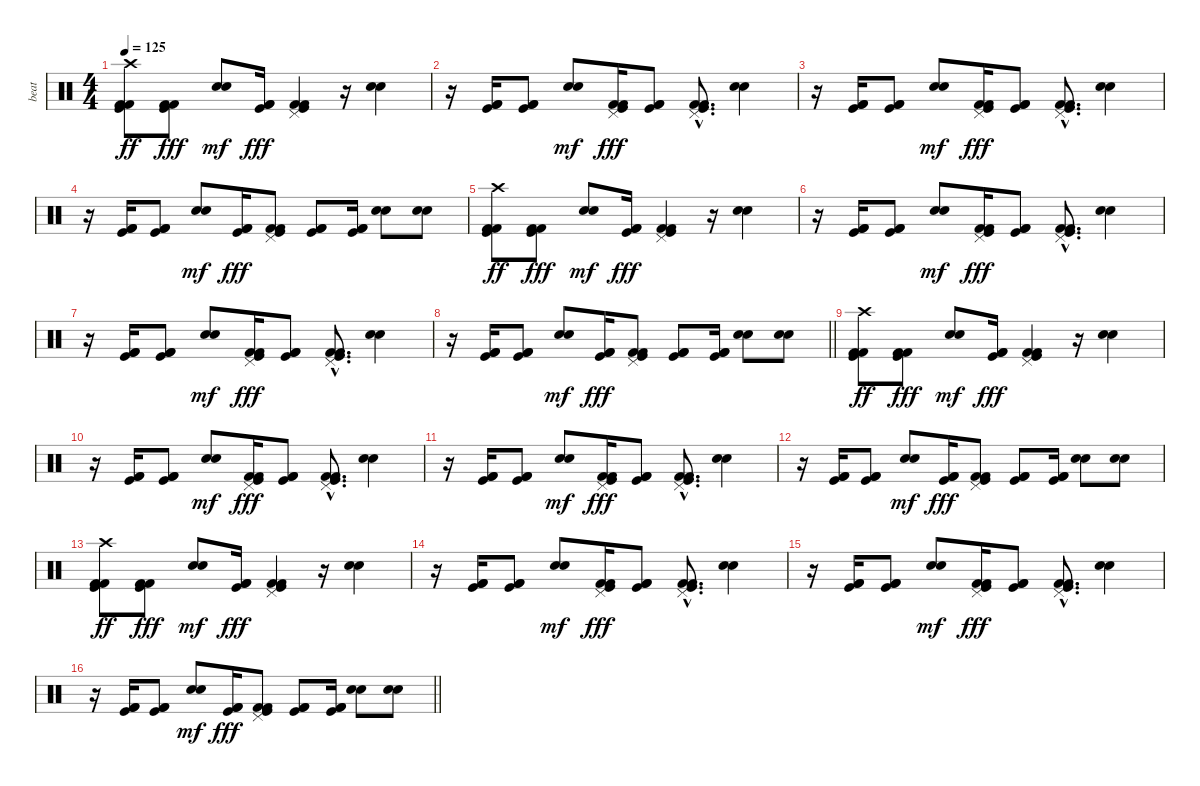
\track ("beat" "beat") {instrument percussion}
\staff {score}
\articulation defaults
\ts (4 4)
\tempo 125
\clef neutral
\ks c
("Kick (hit)" "Kick (hit) 2" "Kick (hit) 2" "Crash high (hit)").8{dy ff} ("Kick (hit)" "Kick (hit) 2" "Kick (hit) 2").8{dy fff} ("Snare (hit) 2" "Hand Clap (hit)").8{dy mf} ("Kick (hit)" "Kick (hit) 2" "Kick (hit) 2").16{dy fff} ("Kick (hit)" "Kick (hit) 2" "Kick (hit) 2" "Pedal Hi-Hat (hit)").4 r.16 ("Snare (hit) 2" "Electric Snare (hit)").4 |
r.16 ("Kick (hit)" "Kick (hit) 2" "Kick (hit) 2").16 ("Kick (hit)" "Kick (hit) 2" "Kick (hit) 2").8 ("Snare (hit) 2" "Hand Clap (hit)").8{dy mf} ("Kick (hit)" "Kick (hit) 2" "Kick (hit) 2" "Pedal Hi-Hat (hit)").16{dy fff} ("Kick (hit)" "Kick (hit) 2" "Kick (hit) 2").8 ("Kick (hit)"{hac} "Kick (hit) 2"{hac} "Kick (hit) 2"{hac} "Pedal Hi-Hat (hit)"{hac}).8{d} ("Snare (hit) 2" "Electric Snare (hit)").4 |
r.16 ("Kick (hit)" "Kick (hit) 2" "Kick (hit) 2").16 ("Kick (hit)" "Kick (hit) 2" "Kick (hit) 2").8 ("Snare (hit) 2" "Hand Clap (hit)").8{dy mf} ("Kick (hit)" "Kick (hit) 2" "Kick (hit) 2" "Pedal Hi-Hat (hit)").16{dy fff} ("Kick (hit)" "Kick (hit) 2" "Kick (hit) 2").8 ("Kick (hit)"{hac} "Kick (hit) 2"{hac} "Kick (hit) 2"{hac} "Pedal Hi-Hat (hit)"{hac}).8{d} ("Snare (hit) 2" "Electric Snare (hit)").4 |
r.16 ("Kick (hit)" "Kick (hit) 2" "Kick (hit) 2").16 ("Kick (hit)" "Kick (hit) 2" "Kick (hit) 2").8 ("Snare (hit) 2" "Hand Clap (hit)").8{dy mf} ("Kick (hit)" "Kick (hit) 2" "Kick (hit) 2").16{dy fff} ("Kick (hit)" "Kick (hit) 2" "Kick (hit) 2" "Pedal Hi-Hat (hit)").8 ("Kick (hit)" "Kick (hit) 2" "Kick (hit) 2").8 ("Kick (hit)" "Kick (hit) 2" "Kick (hit) 2").16 ("Snare (hit) 2" "Electric Snare (hit)").8 ("Snare (hit) 2" "Electric Snare (hit)").8 |
("Kick (hit)" "Kick (hit) 2" "Kick (hit) 2" "Crash high (hit)").8{dy ff} ("Kick (hit)" "Kick (hit) 2" "Kick (hit) 2").8{dy fff} ("Snare (hit) 2" "Hand Clap (hit)").8{dy mf} ("Kick (hit)" "Kick (hit) 2" "Kick (hit) 2").16{dy fff} ("Kick (hit)" "Kick (hit) 2" "Kick (hit) 2" "Pedal Hi-Hat (hit)").4 r.16 ("Snare (hit) 2" "Electric Snare (hit)").4 |
r.16 ("Kick (hit)" "Kick (hit) 2" "Kick (hit) 2").16 ("Kick (hit)" "Kick (hit) 2" "Kick (hit) 2").8 ("Snare (hit) 2" "Hand Clap (hit)").8{dy mf} ("Kick (hit)" "Kick (hit) 2" "Kick (hit) 2" "Pedal Hi-Hat (hit)").16{dy fff} ("Kick (hit)" "Kick (hit) 2" "Kick (hit) 2").8 ("Kick (hit)"{hac} "Kick (hit) 2"{hac} "Kick (hit) 2"{hac} "Pedal Hi-Hat (hit)"{hac}).8{d} ("Snare (hit) 2" "Electric Snare (hit)").4 |
r.16 ("Kick (hit)" "Kick (hit) 2" "Kick (hit) 2").16 ("Kick (hit)" "Kick (hit) 2" "Kick (hit) 2").8 ("Snare (hit) 2" "Hand Clap (hit)").8{dy mf} ("Kick (hit)" "Kick (hit) 2" "Kick (hit) 2" "Pedal Hi-Hat (hit)").16{dy fff} ("Kick (hit)" "Kick (hit) 2" "Kick (hit) 2").8 ("Kick (hit)"{hac} "Kick (hit) 2"{hac} "Kick (hit) 2"{hac} "Pedal Hi-Hat (hit)"{hac}).8{d} ("Snare (hit) 2" "Electric Snare (hit)").4 |
\barLineRight lightlight
r.16 ("Kick (hit)" "Kick (hit) 2" "Kick (hit) 2").16 ("Kick (hit)" "Kick (hit) 2" "Kick (hit) 2").8 ("Snare (hit) 2" "Hand Clap (hit)").8{dy mf} ("Kick (hit)" "Kick (hit) 2" "Kick (hit) 2").16{dy fff} ("Kick (hit)" "Kick (hit) 2" "Kick (hit) 2" "Pedal Hi-Hat (hit)").8 ("Kick (hit)" "Kick (hit) 2" "Kick (hit) 2").8 ("Kick (hit)" "Kick (hit) 2" "Kick (hit) 2").16 ("Snare (hit) 2" "Electric Snare (hit)").8 ("Snare (hit) 2" "Electric Snare (hit)").8 |
("Kick (hit)" "Kick (hit) 2" "Kick (hit) 2" "Crash high (hit)").8{dy ff} ("Kick (hit)" "Kick (hit) 2" "Kick (hit) 2").8{dy fff} ("Snare (hit) 2" "Hand Clap (hit)").8{dy mf} ("Kick (hit)" "Kick (hit) 2" "Kick (hit) 2").16{dy fff} ("Kick (hit)" "Kick (hit) 2" "Kick (hit) 2" "Pedal Hi-Hat (hit)").4 r.16 ("Snare (hit) 2" "Electric Snare (hit)").4 |
r.16 ("Kick (hit)" "Kick (hit) 2" "Kick (hit) 2").16 ("Kick (hit)" "Kick (hit) 2" "Kick (hit) 2").8 ("Snare (hit) 2" "Hand Clap (hit)").8{dy mf} ("Kick (hit)" "Kick (hit) 2" "Kick (hit) 2" "Pedal Hi-Hat (hit)").16{dy fff} ("Kick (hit)" "Kick (hit) 2" "Kick (hit) 2").8 ("Kick (hit)"{hac} "Kick (hit) 2"{hac} "Kick (hit) 2"{hac} "Pedal Hi-Hat (hit)"{hac}).8{d} ("Snare (hit) 2" "Electric Snare (hit)").4 |
r.16 ("Kick (hit)" "Kick (hit) 2" "Kick (hit) 2").16 ("Kick (hit)" "Kick (hit) 2" "Kick (hit) 2").8 ("Snare (hit) 2" "Hand Clap (hit)").8{dy mf} ("Kick (hit)" "Kick (hit) 2" "Kick (hit) 2" "Pedal Hi-Hat (hit)").16{dy fff} ("Kick (hit)" "Kick (hit) 2" "Kick (hit) 2").8 ("Kick (hit)"{hac} "Kick (hit) 2"{hac} "Kick (hit) 2"{hac} "Pedal Hi-Hat (hit)"{hac}).8{d} ("Snare (hit) 2" "Electric Snare (hit)").4 |
r.16 ("Kick (hit)" "Kick (hit) 2" "Kick (hit) 2").16 ("Kick (hit)" "Kick (hit) 2" "Kick (hit) 2").8 ("Snare (hit) 2" "Hand Clap (hit)").8{dy mf} ("Kick (hit)" "Kick (hit) 2" "Kick (hit) 2").16{dy fff} ("Kick (hit)" "Kick (hit) 2" "Kick (hit) 2" "Pedal Hi-Hat (hit)").8 ("Kick (hit)" "Kick (hit) 2" "Kick (hit) 2").8 ("Kick (hit)" "Kick (hit) 2" "Kick (hit) 2").16 ("Snare (hit) 2" "Electric Snare (hit)").8 ("Snare (hit) 2" "Electric Snare (hit)").8 |
("Kick (hit)" "Kick (hit) 2" "Kick (hit) 2" "Crash high (hit)").8{dy ff} ("Kick (hit)" "Kick (hit) 2" "Kick (hit) 2").8{dy fff} ("Snare (hit) 2" "Hand Clap (hit)").8{dy mf} ("Kick (hit)" "Kick (hit) 2" "Kick (hit) 2").16{dy fff} ("Kick (hit)" "Kick (hit) 2" "Kick (hit) 2" "Pedal Hi-Hat (hit)").4 r.16 ("Snare (hit) 2" "Electric Snare (hit)").4 |
r.16 ("Kick (hit)" "Kick (hit) 2" "Kick (hit) 2").16 ("Kick (hit)" "Kick (hit) 2" "Kick (hit) 2").8 ("Snare (hit) 2" "Hand Clap (hit)").8{dy mf} ("Kick (hit)" "Kick (hit) 2" "Kick (hit) 2" "Pedal Hi-Hat (hit)").16{dy fff} ("Kick (hit)" "Kick (hit) 2" "Kick (hit) 2").8 ("Kick (hit)"{hac} "Kick (hit) 2"{hac} "Kick (hit) 2"{hac} "Pedal Hi-Hat (hit)"{hac}).8{d} ("Snare (hit) 2" "Electric Snare (hit)").4 |
r.16 ("Kick (hit)" "Kick (hit) 2" "Kick (hit) 2").16 ("Kick (hit)" "Kick (hit) 2" "Kick (hit) 2").8 ("Snare (hit) 2" "Hand Clap (hit)").8{dy mf} ("Kick (hit)" "Kick (hit) 2" "Kick (hit) 2" "Pedal Hi-Hat (hit)").16{dy fff} ("Kick (hit)" "Kick (hit) 2" "Kick (hit) 2").8 ("Kick (hit)"{hac} "Kick (hit) 2"{hac} "Kick (hit) 2"{hac} "Pedal Hi-Hat (hit)"{hac}).8{d} ("Snare (hit) 2" "Electric Snare (hit)").4 |
\barLineRight lightlight
r.16 ("Kick (hit)" "Kick (hit) 2" "Kick (hit) 2").16 ("Kick (hit)" "Kick (hit) 2" "Kick (hit) 2").8 ("Snare (hit) 2" "Hand Clap (hit)").8{dy mf} ("Kick (hit)" "Kick (hit) 2" "Kick (hit) 2").16{dy fff} ("Kick (hit)" "Kick (hit) 2" "Kick (hit) 2" "Pedal Hi-Hat (hit)").8 ("Kick (hit)" "Kick (hit) 2" "Kick (hit) 2").8 ("Kick (hit)" "Kick (hit) 2" "Kick (hit) 2").16 ("Snare (hit) 2" "Electric Snare (hit)").8 ("Snare (hit) 2" "Electric Snare (hit)").8
